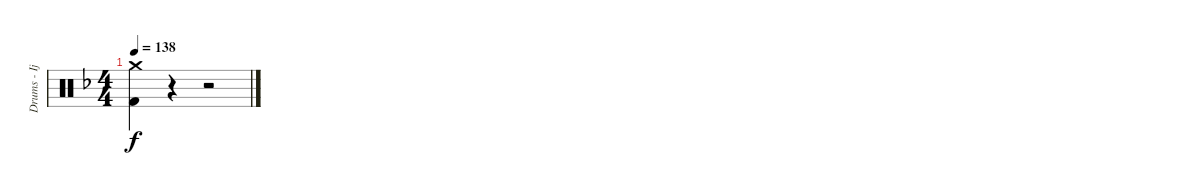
\track ("Drums - Ijichi" "Drums - Ij") {instrument percussion}
\staff {score}
\articulation defaults
\ts (4 4)
\tempo 138
\clef neutral
\ks f
("Crash medium (hit)" "Kick (hit) 2").4{dy f} r.4 r.2
